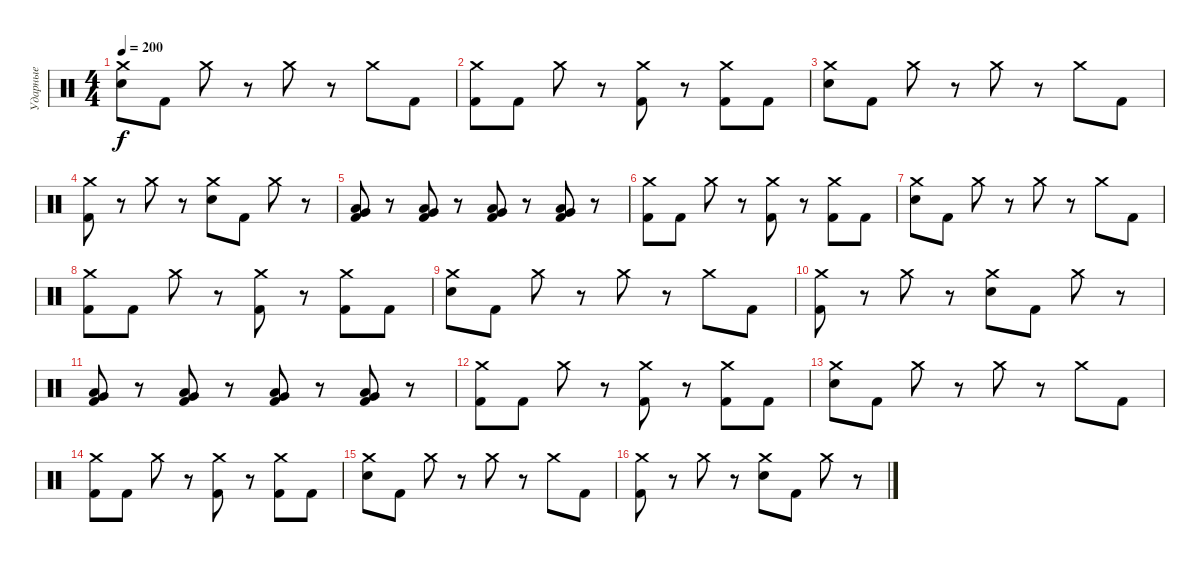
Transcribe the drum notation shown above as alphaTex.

\track ("Ударные" "Ударные") {instrument percussion}
\staff {score}
\articulation defaults
\ts (4 4)
\tempo 200
\clef neutral
\ks c
("Crash medium (hit)" "Electric Snare (hit)").8{dy f} "Kick (hit) 2".8 "Crash medium (hit)".8 r.8 "Crash medium (hit)".8 r.8 "Crash medium (hit)".8 "Kick (hit) 2".8 |
("Crash medium (hit)" "Kick (hit) 2").8 "Kick (hit) 2".8 "Crash medium (hit)".8 r.8 ("Crash medium (hit)" "Kick (hit) 2").8 r.8 ("Crash medium (hit)" "Kick (hit) 2").8 "Kick (hit) 2".8 |
("Crash medium (hit)" "Electric Snare (hit)").8 "Kick (hit) 2".8 "Crash medium (hit)".8 r.8 "Crash medium (hit)".8 r.8 "Crash medium (hit)".8 "Kick (hit) 2".8 |
("Crash medium (hit)" "Kick (hit) 2").8 r.8 "Crash medium (hit)".8 r.8 ("Crash medium (hit)" "Electric Snare (hit)").8 "Kick (hit) 2".8 "Crash medium (hit)".8 r.8 |
("Low Floor Tom (hit)" "Very Low Tom (hit)" "Kick (hit) 2").8 r.8 ("Low Floor Tom (hit)" "Very Low Tom (hit)" "Kick (hit) 2").8 r.8 ("Low Floor Tom (hit)" "Very Low Tom (hit)" "Kick (hit) 2").8 r.8 ("Low Floor Tom (hit)" "Very Low Tom (hit)" "Kick (hit) 2").8 r.8 |
("Crash medium (hit)" "Kick (hit) 2").8 "Kick (hit) 2".8 "Crash medium (hit)".8 r.8 ("Crash medium (hit)" "Kick (hit) 2").8 r.8 ("Crash medium (hit)" "Kick (hit) 2").8 "Kick (hit) 2".8 |
("Crash medium (hit)" "Electric Snare (hit)").8 "Kick (hit) 2".8 "Crash medium (hit)".8 r.8 "Crash medium (hit)".8 r.8 "Crash medium (hit)".8 "Kick (hit) 2".8 |
("Crash medium (hit)" "Kick (hit) 2").8 "Kick (hit) 2".8 "Crash medium (hit)".8 r.8 ("Crash medium (hit)" "Kick (hit) 2").8 r.8 ("Crash medium (hit)" "Kick (hit) 2").8 "Kick (hit) 2".8 |
("Crash medium (hit)" "Electric Snare (hit)").8 "Kick (hit) 2".8 "Crash medium (hit)".8 r.8 "Crash medium (hit)".8 r.8 "Crash medium (hit)".8 "Kick (hit) 2".8 |
("Crash medium (hit)" "Kick (hit) 2").8 r.8 "Crash medium (hit)".8 r.8 ("Crash medium (hit)" "Electric Snare (hit)").8 "Kick (hit) 2".8 "Crash medium (hit)".8 r.8 |
("Low Floor Tom (hit)" "Very Low Tom (hit)" "Kick (hit) 2").8 r.8 ("Low Floor Tom (hit)" "Very Low Tom (hit)" "Kick (hit) 2").8 r.8 ("Low Floor Tom (hit)" "Very Low Tom (hit)" "Kick (hit) 2").8 r.8 ("Low Floor Tom (hit)" "Very Low Tom (hit)" "Kick (hit) 2").8 r.8 |
("Crash medium (hit)" "Kick (hit) 2").8 "Kick (hit) 2".8 "Crash medium (hit)".8 r.8 ("Crash medium (hit)" "Kick (hit) 2").8 r.8 ("Crash medium (hit)" "Kick (hit) 2").8 "Kick (hit) 2".8 |
("Crash medium (hit)" "Electric Snare (hit)").8 "Kick (hit) 2".8 "Crash medium (hit)".8 r.8 "Crash medium (hit)".8 r.8 "Crash medium (hit)".8 "Kick (hit) 2".8 |
("Crash medium (hit)" "Kick (hit) 2").8 "Kick (hit) 2".8 "Crash medium (hit)".8 r.8 ("Crash medium (hit)" "Kick (hit) 2").8 r.8 ("Crash medium (hit)" "Kick (hit) 2").8 "Kick (hit) 2".8 |
("Crash medium (hit)" "Electric Snare (hit)").8 "Kick (hit) 2".8 "Crash medium (hit)".8 r.8 "Crash medium (hit)".8 r.8 "Crash medium (hit)".8 "Kick (hit) 2".8 |
("Crash medium (hit)" "Kick (hit) 2").8 r.8 "Crash medium (hit)".8 r.8 ("Crash medium (hit)" "Electric Snare (hit)").8 "Kick (hit) 2".8 "Crash medium (hit)".8 r.8
